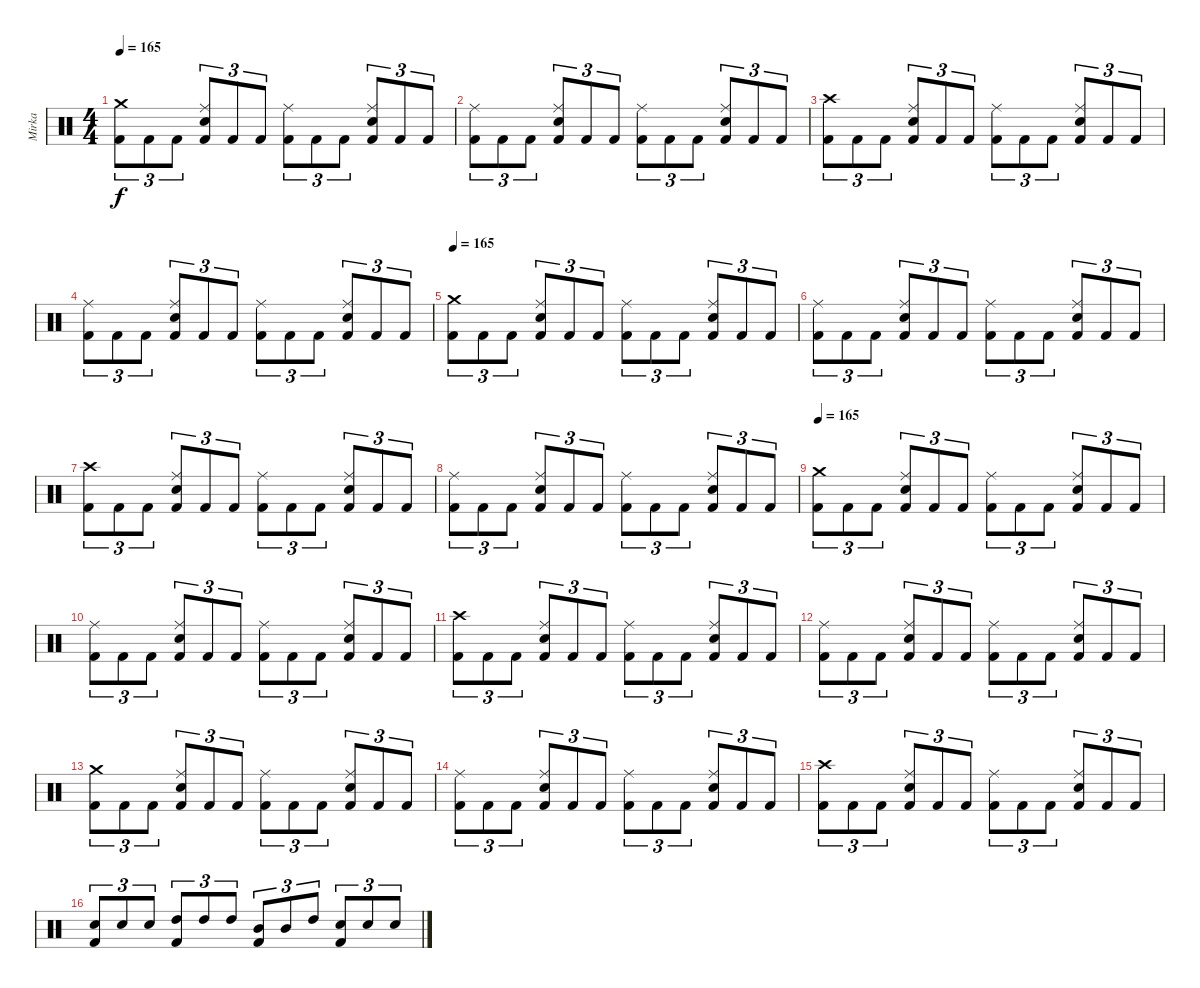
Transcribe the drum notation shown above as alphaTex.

\track ("Mirka" "Mirka") {instrument percussion}
\staff {score}
\articulation defaults
\ts (4 4)
\tempo 165
\clef neutral
\ks c
("Crash medium (hit)" "Kick (hit) 2").8{tu (3 2) dy f} "Kick (hit) 2".8{tu (3 2)} "Kick (hit) 2".8{tu (3 2)} ("Ride (middle)" "Electric Snare (hit)" "Kick (hit) 2").8{tu (3 2)} "Kick (hit) 2".8{tu (3 2)} "Kick (hit) 2".8{tu (3 2)} ("Ride (middle)" "Kick (hit) 2").8{tu (3 2)} "Kick (hit) 2".8{tu (3 2)} "Kick (hit) 2".8{tu (3 2)} ("Ride (middle)" "Electric Snare (hit)" "Kick (hit) 2").8{tu (3 2)} "Kick (hit) 2".8{tu (3 2)} "Kick (hit) 2".8{tu (3 2)} |
("Ride (middle)" "Kick (hit) 2").8{tu (3 2)} "Kick (hit) 2".8{tu (3 2)} "Kick (hit) 2".8{tu (3 2)} ("Ride (middle)" "Electric Snare (hit)" "Kick (hit) 2").8{tu (3 2)} "Kick (hit) 2".8{tu (3 2)} "Kick (hit) 2".8{tu (3 2)} ("Ride (middle)" "Kick (hit) 2").8{tu (3 2)} "Kick (hit) 2".8{tu (3 2)} "Kick (hit) 2".8{tu (3 2)} ("Ride (middle)" "Electric Snare (hit)" "Kick (hit) 2").8{tu (3 2)} "Kick (hit) 2".8{tu (3 2)} "Kick (hit) 2".8{tu (3 2)} |
("Crash high (hit)" "Kick (hit) 2").8{tu (3 2)} "Kick (hit) 2".8{tu (3 2)} "Kick (hit) 2".8{tu (3 2)} ("Ride (middle)" "Electric Snare (hit)" "Kick (hit) 2").8{tu (3 2)} "Kick (hit) 2".8{tu (3 2)} "Kick (hit) 2".8{tu (3 2)} ("Ride (middle)" "Kick (hit) 2").8{tu (3 2)} "Kick (hit) 2".8{tu (3 2)} "Kick (hit) 2".8{tu (3 2)} ("Ride (middle)" "Electric Snare (hit)" "Kick (hit) 2").8{tu (3 2)} "Kick (hit) 2".8{tu (3 2)} "Kick (hit) 2".8{tu (3 2)} |
("Ride (middle)" "Kick (hit) 2").8{tu (3 2)} "Kick (hit) 2".8{tu (3 2)} "Kick (hit) 2".8{tu (3 2)} ("Ride (middle)" "Electric Snare (hit)" "Kick (hit) 2").8{tu (3 2)} "Kick (hit) 2".8{tu (3 2)} "Kick (hit) 2".8{tu (3 2)} ("Ride (middle)" "Kick (hit) 2").8{tu (3 2)} "Kick (hit) 2".8{tu (3 2)} "Kick (hit) 2".8{tu (3 2)} ("Ride (middle)" "Electric Snare (hit)" "Kick (hit) 2").8{tu (3 2)} "Kick (hit) 2".8{tu (3 2)} "Kick (hit) 2".8{tu (3 2)} |
\tempo 165
("Crash medium (hit)" "Kick (hit) 2").8{tu (3 2)} "Kick (hit) 2".8{tu (3 2)} "Kick (hit) 2".8{tu (3 2)} ("Ride (middle)" "Electric Snare (hit)" "Kick (hit) 2").8{tu (3 2)} "Kick (hit) 2".8{tu (3 2)} "Kick (hit) 2".8{tu (3 2)} ("Ride (middle)" "Kick (hit) 2").8{tu (3 2)} "Kick (hit) 2".8{tu (3 2)} "Kick (hit) 2".8{tu (3 2)} ("Ride (middle)" "Electric Snare (hit)" "Kick (hit) 2").8{tu (3 2)} "Kick (hit) 2".8{tu (3 2)} "Kick (hit) 2".8{tu (3 2)} |
("Ride (middle)" "Kick (hit) 2").8{tu (3 2)} "Kick (hit) 2".8{tu (3 2)} "Kick (hit) 2".8{tu (3 2)} ("Ride (middle)" "Electric Snare (hit)" "Kick (hit) 2").8{tu (3 2)} "Kick (hit) 2".8{tu (3 2)} "Kick (hit) 2".8{tu (3 2)} ("Ride (middle)" "Kick (hit) 2").8{tu (3 2)} "Kick (hit) 2".8{tu (3 2)} "Kick (hit) 2".8{tu (3 2)} ("Ride (middle)" "Electric Snare (hit)" "Kick (hit) 2").8{tu (3 2)} "Kick (hit) 2".8{tu (3 2)} "Kick (hit) 2".8{tu (3 2)} |
("Crash high (hit)" "Kick (hit) 2").8{tu (3 2)} "Kick (hit) 2".8{tu (3 2)} "Kick (hit) 2".8{tu (3 2)} ("Ride (middle)" "Electric Snare (hit)" "Kick (hit) 2").8{tu (3 2)} "Kick (hit) 2".8{tu (3 2)} "Kick (hit) 2".8{tu (3 2)} ("Ride (middle)" "Kick (hit) 2").8{tu (3 2)} "Kick (hit) 2".8{tu (3 2)} "Kick (hit) 2".8{tu (3 2)} ("Ride (middle)" "Electric Snare (hit)" "Kick (hit) 2").8{tu (3 2)} "Kick (hit) 2".8{tu (3 2)} "Kick (hit) 2".8{tu (3 2)} |
("Ride (middle)" "Kick (hit) 2").8{tu (3 2)} "Kick (hit) 2".8{tu (3 2)} "Kick (hit) 2".8{tu (3 2)} ("Ride (middle)" "Electric Snare (hit)" "Kick (hit) 2").8{tu (3 2)} "Kick (hit) 2".8{tu (3 2)} "Kick (hit) 2".8{tu (3 2)} ("Ride (middle)" "Kick (hit) 2").8{tu (3 2)} "Kick (hit) 2".8{tu (3 2)} "Kick (hit) 2".8{tu (3 2)} ("Ride (middle)" "Electric Snare (hit)" "Kick (hit) 2").8{tu (3 2)} "Kick (hit) 2".8{tu (3 2)} "Kick (hit) 2".8{tu (3 2)} |
\tempo 165
("Crash medium (hit)" "Kick (hit) 2").8{tu (3 2)} "Kick (hit) 2".8{tu (3 2)} "Kick (hit) 2".8{tu (3 2)} ("Ride (middle)" "Electric Snare (hit)" "Kick (hit) 2").8{tu (3 2)} "Kick (hit) 2".8{tu (3 2)} "Kick (hit) 2".8{tu (3 2)} ("Ride (middle)" "Kick (hit) 2").8{tu (3 2)} "Kick (hit) 2".8{tu (3 2)} "Kick (hit) 2".8{tu (3 2)} ("Ride (middle)" "Electric Snare (hit)" "Kick (hit) 2").8{tu (3 2)} "Kick (hit) 2".8{tu (3 2)} "Kick (hit) 2".8{tu (3 2)} |
("Ride (middle)" "Kick (hit) 2").8{tu (3 2)} "Kick (hit) 2".8{tu (3 2)} "Kick (hit) 2".8{tu (3 2)} ("Ride (middle)" "Electric Snare (hit)" "Kick (hit) 2").8{tu (3 2)} "Kick (hit) 2".8{tu (3 2)} "Kick (hit) 2".8{tu (3 2)} ("Ride (middle)" "Kick (hit) 2").8{tu (3 2)} "Kick (hit) 2".8{tu (3 2)} "Kick (hit) 2".8{tu (3 2)} ("Ride (middle)" "Electric Snare (hit)" "Kick (hit) 2").8{tu (3 2)} "Kick (hit) 2".8{tu (3 2)} "Kick (hit) 2".8{tu (3 2)} |
("Crash high (hit)" "Kick (hit) 2").8{tu (3 2)} "Kick (hit) 2".8{tu (3 2)} "Kick (hit) 2".8{tu (3 2)} ("Ride (middle)" "Electric Snare (hit)" "Kick (hit) 2").8{tu (3 2)} "Kick (hit) 2".8{tu (3 2)} "Kick (hit) 2".8{tu (3 2)} ("Ride (middle)" "Kick (hit) 2").8{tu (3 2)} "Kick (hit) 2".8{tu (3 2)} "Kick (hit) 2".8{tu (3 2)} ("Ride (middle)" "Electric Snare (hit)" "Kick (hit) 2").8{tu (3 2)} "Kick (hit) 2".8{tu (3 2)} "Kick (hit) 2".8{tu (3 2)} |
("Ride (middle)" "Kick (hit) 2").8{tu (3 2)} "Kick (hit) 2".8{tu (3 2)} "Kick (hit) 2".8{tu (3 2)} ("Ride (middle)" "Electric Snare (hit)" "Kick (hit) 2").8{tu (3 2)} "Kick (hit) 2".8{tu (3 2)} "Kick (hit) 2".8{tu (3 2)} ("Ride (middle)" "Kick (hit) 2").8{tu (3 2)} "Kick (hit) 2".8{tu (3 2)} "Kick (hit) 2".8{tu (3 2)} ("Ride (middle)" "Electric Snare (hit)" "Kick (hit) 2").8{tu (3 2)} "Kick (hit) 2".8{tu (3 2)} "Kick (hit) 2".8{tu (3 2)} |
("Crash medium (hit)" "Kick (hit) 2").8{tu (3 2)} "Kick (hit) 2".8{tu (3 2)} "Kick (hit) 2".8{tu (3 2)} ("Ride (middle)" "Electric Snare (hit)" "Kick (hit) 2").8{tu (3 2)} "Kick (hit) 2".8{tu (3 2)} "Kick (hit) 2".8{tu (3 2)} ("Ride (middle)" "Kick (hit) 2").8{tu (3 2)} "Kick (hit) 2".8{tu (3 2)} "Kick (hit) 2".8{tu (3 2)} ("Ride (middle)" "Electric Snare (hit)" "Kick (hit) 2").8{tu (3 2)} "Kick (hit) 2".8{tu (3 2)} "Kick (hit) 2".8{tu (3 2)} |
("Ride (middle)" "Kick (hit) 2").8{tu (3 2)} "Kick (hit) 2".8{tu (3 2)} "Kick (hit) 2".8{tu (3 2)} ("Ride (middle)" "Electric Snare (hit)" "Kick (hit) 2").8{tu (3 2)} "Kick (hit) 2".8{tu (3 2)} "Kick (hit) 2".8{tu (3 2)} ("Ride (middle)" "Kick (hit) 2").8{tu (3 2)} "Kick (hit) 2".8{tu (3 2)} "Kick (hit) 2".8{tu (3 2)} ("Ride (middle)" "Electric Snare (hit)" "Kick (hit) 2").8{tu (3 2)} "Kick (hit) 2".8{tu (3 2)} "Kick (hit) 2".8{tu (3 2)} |
("Crash high (hit)" "Kick (hit) 2").8{tu (3 2)} "Kick (hit) 2".8{tu (3 2)} "Kick (hit) 2".8{tu (3 2)} ("Ride (middle)" "Electric Snare (hit)" "Kick (hit) 2").8{tu (3 2)} "Kick (hit) 2".8{tu (3 2)} "Kick (hit) 2".8{tu (3 2)} ("Ride (middle)" "Kick (hit) 2").8{tu (3 2)} "Kick (hit) 2".8{tu (3 2)} "Kick (hit) 2".8{tu (3 2)} ("Ride (middle)" "Electric Snare (hit)" "Kick (hit) 2").8{tu (3 2)} "Kick (hit) 2".8{tu (3 2)} "Kick (hit) 2".8{tu (3 2)} |
("Electric Snare (hit)" "Kick (hit) 2").8{tu (3 2)} "Electric Snare (hit)".8{tu (3 2)} "Electric Snare (hit)".8{tu (3 2)} ("High Tom (hit)" "Kick (hit) 2").8{tu (3 2)} "High Tom (hit)".8{tu (3 2)} "High Tom (hit)".8{tu (3 2)} ("Mid Tom (hit)" "Kick (hit) 2").8{tu (3 2)} "Mid Tom (hit)".8{tu (3 2)} "High Tom (hit)".8{tu (3 2)} ("Electric Snare (hit)" "Kick (hit) 2").8{tu (3 2)} "Electric Snare (hit)".8{tu (3 2)} "Electric Snare (hit)".8{tu (3 2)}
